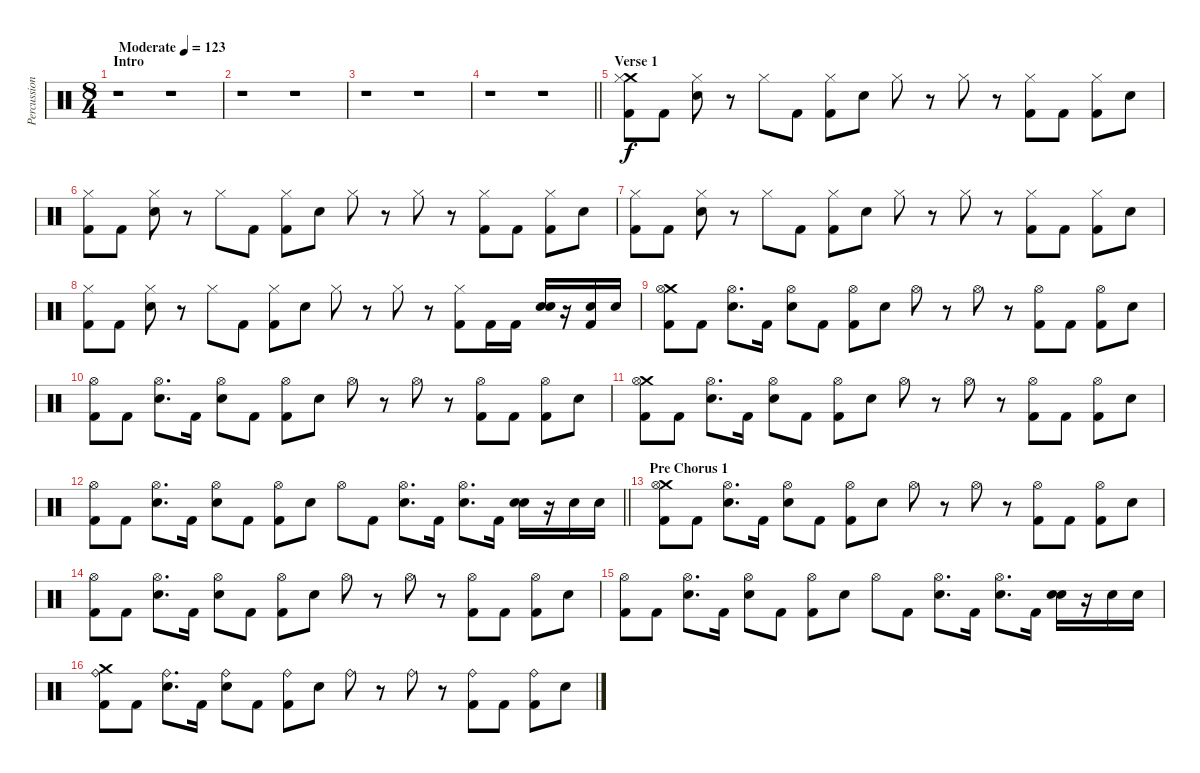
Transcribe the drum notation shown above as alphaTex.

\track ("Percussion" "Percussion") {instrument percussion}
\staff {score}
\articulation defaults
\ts (8 4)
\section ("" "Intro")
\tempo (123 "Moderate")
\clef neutral
\ks c
r.1{dy f} r.1 |
r.1 r.1 |
r.1 r.1 |
\barLineRight lightlight
r.1 r.1 |
\section ("" "Verse 1")
("Crash medium (hit)" "Hi-Hat (closed)" "Kick (hit) 2").8 "Kick (hit) 2".8 ("Hi-Hat (closed)" "Snare (hit) 2").8 r.8 "Hi-Hat (closed)".8 "Kick (hit) 2".8 ("Hi-Hat (closed)" "Kick (hit) 2").8 "Snare (hit) 2".8 "Hi-Hat (closed)".8 r.8 "Hi-Hat (closed)".8 r.8 ("Hi-Hat (closed)" "Kick (hit) 2").8 "Kick (hit) 2".8 ("Hi-Hat (closed)" "Kick (hit) 2").8 "Snare (hit) 2".8 |
("Hi-Hat (closed)" "Kick (hit) 2").8 "Kick (hit) 2".8 ("Hi-Hat (closed)" "Snare (hit) 2").8 r.8 "Hi-Hat (closed)".8 "Kick (hit) 2".8 ("Hi-Hat (closed)" "Kick (hit) 2").8 "Snare (hit) 2".8 "Hi-Hat (closed)".8 r.8 "Hi-Hat (closed)".8 r.8 ("Hi-Hat (closed)" "Kick (hit) 2").8 "Kick (hit) 2".8 ("Hi-Hat (closed)" "Kick (hit) 2").8 "Snare (hit) 2".8 |
("Hi-Hat (closed)" "Kick (hit) 2").8 "Kick (hit) 2".8 ("Hi-Hat (closed)" "Snare (hit) 2").8 r.8 "Hi-Hat (closed)".8 "Kick (hit) 2".8 ("Hi-Hat (closed)" "Kick (hit) 2").8 "Snare (hit) 2".8 "Hi-Hat (closed)".8 r.8 "Hi-Hat (closed)".8 r.8 ("Hi-Hat (closed)" "Kick (hit) 2").8 "Kick (hit) 2".8 ("Hi-Hat (closed)" "Kick (hit) 2").8 "Snare (hit) 2".8 |
("Hi-Hat (closed)" "Kick (hit) 2").8 "Kick (hit) 2".8 ("Hi-Hat (closed)" "Snare (hit) 2").8 r.8 "Hi-Hat (closed)".8 "Kick (hit) 2".8 ("Hi-Hat (closed)" "Kick (hit) 2").8 "Snare (hit) 2".8 "Hi-Hat (closed)".8 r.8 "Hi-Hat (closed)".8 r.8 ("Hi-Hat (closed)" "Kick (hit) 2").8 "Kick (hit) 2".16 "Kick (hit) 2".16 ("Snare (hit) 2" "Snare (hit) 2").16 r.16 ("Snare (hit) 2" "Kick (hit) 2").16 "Snare (hit) 2".16 |
("Crash medium (hit)" "Hi-Hat (open)" "Kick (hit) 2").8 "Kick (hit) 2".8 ("Hi-Hat (open)" "Snare (hit) 2").8{d} "Kick (hit) 2".16 ("Hi-Hat (open)" "Snare (hit) 2").8 "Kick (hit) 2".8 ("Hi-Hat (open)" "Kick (hit) 2").8 "Snare (hit) 2".8 "Hi-Hat (open)".8 r.8 "Hi-Hat (open)".8 r.8 ("Hi-Hat (open)" "Kick (hit) 2").8 "Kick (hit) 2".8 ("Hi-Hat (open)" "Kick (hit) 2").8 "Snare (hit) 2".8 |
("Hi-Hat (open)" "Kick (hit) 2").8 "Kick (hit) 2".8 ("Hi-Hat (open)" "Snare (hit) 2").8{d} "Kick (hit) 2".16 ("Hi-Hat (open)" "Snare (hit) 2").8 "Kick (hit) 2".8 ("Hi-Hat (open)" "Kick (hit) 2").8 "Snare (hit) 2".8 "Hi-Hat (open)".8 r.8 "Hi-Hat (open)".8 r.8 ("Hi-Hat (open)" "Kick (hit) 2").8 "Kick (hit) 2".8 ("Hi-Hat (open)" "Kick (hit) 2").8 "Snare (hit) 2".8 |
("Crash medium (hit)" "Hi-Hat (open)" "Kick (hit) 2").8 "Kick (hit) 2".8 ("Hi-Hat (open)" "Snare (hit) 2").8{d} "Kick (hit) 2".16 ("Hi-Hat (open)" "Snare (hit) 2").8 "Kick (hit) 2".8 ("Hi-Hat (open)" "Kick (hit) 2").8 "Snare (hit) 2".8 "Hi-Hat (open)".8 r.8 "Hi-Hat (open)".8 r.8 ("Hi-Hat (open)" "Kick (hit) 2").8 "Kick (hit) 2".8 ("Hi-Hat (open)" "Kick (hit) 2").8 "Snare (hit) 2".8 |
\barLineRight lightlight
("Hi-Hat (open)" "Kick (hit) 2").8 "Kick (hit) 2".8 ("Hi-Hat (open)" "Snare (hit) 2").8{d} "Kick (hit) 2".16 ("Hi-Hat (open)" "Snare (hit) 2").8 "Kick (hit) 2".8 ("Hi-Hat (open)" "Kick (hit) 2").8 "Snare (hit) 2".8 "Hi-Hat (open)".8 "Kick (hit) 2".8 ("Hi-Hat (open)" "Snare (hit) 2").8{d} "Kick (hit) 2".16 ("Hi-Hat (open)" "Snare (hit) 2").8{d} "Kick (hit) 2".16 ("Snare (hit) 2" "Snare (hit) 2").16 r.16 "Snare (hit) 2".16 "Snare (hit) 2".16 |
\section ("" "Pre Chorus 1")
("Crash medium (hit)" "Hi-Hat (open)" "Kick (hit) 2").8 "Kick (hit) 2".8 ("Hi-Hat (open)" "Snare (hit) 2").8{d} "Kick (hit) 2".16 ("Hi-Hat (open)" "Snare (hit) 2").8 "Kick (hit) 2".8 ("Hi-Hat (open)" "Kick (hit) 2").8 "Snare (hit) 2".8 "Hi-Hat (open)".8 r.8 "Hi-Hat (open)".8 r.8 ("Hi-Hat (open)" "Kick (hit) 2").8 "Kick (hit) 2".8 ("Hi-Hat (open)" "Kick (hit) 2").8 "Snare (hit) 2".8 |
("Hi-Hat (open)" "Kick (hit) 2").8 "Kick (hit) 2".8 ("Hi-Hat (open)" "Snare (hit) 2").8{d} "Kick (hit) 2".16 ("Hi-Hat (open)" "Snare (hit) 2").8 "Kick (hit) 2".8 ("Hi-Hat (open)" "Kick (hit) 2").8 "Snare (hit) 2".8 "Hi-Hat (open)".8 r.8 "Hi-Hat (open)".8 r.8 ("Hi-Hat (open)" "Kick (hit) 2").8 "Kick (hit) 2".8 ("Hi-Hat (open)" "Kick (hit) 2").8 "Snare (hit) 2".8 |
("Hi-Hat (open)" "Kick (hit) 2").8 "Kick (hit) 2".8 ("Hi-Hat (open)" "Snare (hit) 2").8{d} "Kick (hit) 2".16 ("Hi-Hat (open)" "Snare (hit) 2").8 "Kick (hit) 2".8 ("Hi-Hat (open)" "Kick (hit) 2").8 "Snare (hit) 2".8 "Hi-Hat (open)".8 "Kick (hit) 2".8 ("Hi-Hat (open)" "Snare (hit) 2").8{d} "Kick (hit) 2".16 ("Hi-Hat (open)" "Snare (hit) 2").8{d} "Kick (hit) 2".16 ("Snare (hit) 2" "Snare (hit) 2").16 r.16 "Snare (hit) 2".16 "Snare (hit) 2".16 |
("Crash medium (hit)" "Ride (bell)" "Kick (hit) 2").8 "Kick (hit) 2".8 ("Ride (bell)" "Snare (hit) 2").8{d} "Kick (hit) 2".16 ("Ride (bell)" "Snare (hit) 2").8 "Kick (hit) 2".8 ("Ride (bell)" "Kick (hit) 2").8 "Snare (hit) 2".8 "Ride (bell)".8 r.8 "Ride (bell)".8 r.8 ("Ride (bell)" "Kick (hit) 2").8 "Kick (hit) 2".8 ("Ride (bell)" "Kick (hit) 2").8 "Snare (hit) 2".8
